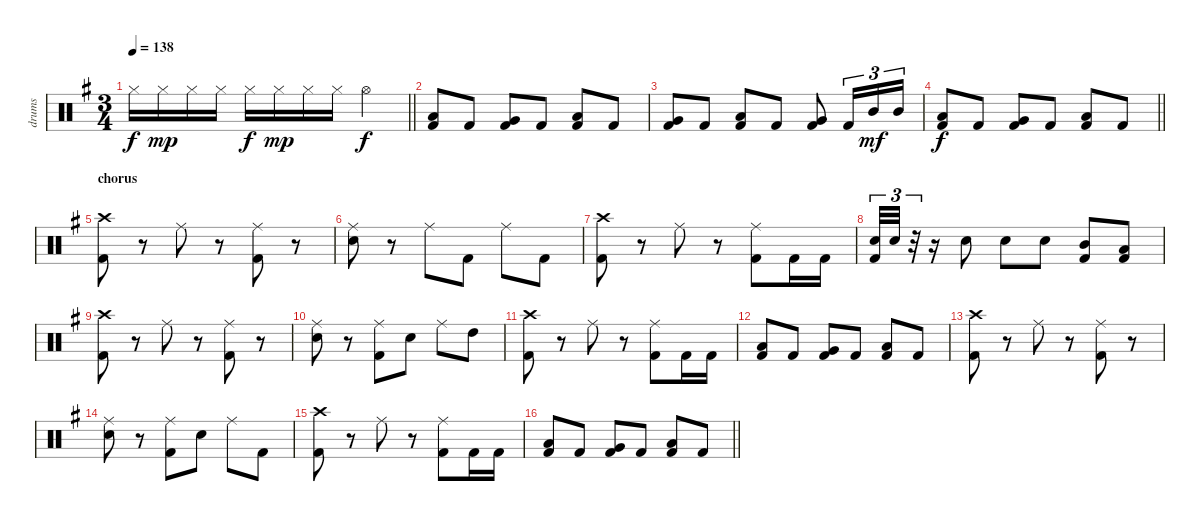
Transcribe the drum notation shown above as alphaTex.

\track ("drums" "drums") {instrument percussion}
\staff {score}
\articulation defaults
\ts (3 4)
\tempo 138
\clef neutral
\barLineRight lightlight
\ks eminor "Hi-Hat (closed)".16{dy f} "Hi-Hat (closed)".16{dy mp} "Hi-Hat (closed)".16 "Hi-Hat (closed)".16 "Hi-Hat (closed)".16{dy f} "Hi-Hat (closed)".16{dy mp} "Hi-Hat (closed)".16 "Hi-Hat (closed)".16 "Hi-Hat (open)".4{dy f}
|
\section ("" "")
("Low Tom (hit)" "Kick (hit) 2").8 "Kick (hit) 2".8 ("Very Low Tom (hit)" "Kick (hit) 2").8 "Kick (hit) 2".8 ("Low Tom (hit)" "Kick (hit) 2").8 "Kick (hit) 2".8 |
("Very Low Tom (hit)" "Kick (hit) 2").8 "Kick (hit) 2".8 ("Low Tom (hit)" "Kick (hit) 2").8 "Kick (hit) 2".8 ("Very Low Tom (hit)" "Kick (hit) 2").8 "Kick (hit) 2".16{tu (3 2)} "Mid Tom (hit)".16{tu (3 2) dy mf} "Mid Tom (hit)".16{tu (3 2)} |
\barLineRight lightlight
("Low Tom (hit)" "Kick (hit) 2").8{dy f} "Kick (hit) 2".8 ("Very Low Tom (hit)" "Kick (hit) 2").8 "Kick (hit) 2".8 ("Low Tom (hit)" "Kick (hit) 2").8 "Kick (hit) 2".8 |
\section ("" "chorus")
("Crash high (hit)" "Kick (hit) 2").8 r.8 "Ride (middle)".8 r.8 ("Ride (middle)" "Kick (hit) 2").8 r.8 |
("Ride (middle)" "Snare (hit) 2").8 r.8 "Ride (middle)".8 "Kick (hit) 2".8 "Ride (middle)".8 "Kick (hit) 2".8 |
("Crash high (hit)" "Kick (hit) 2").8 r.8 "Ride (middle)".8 r.8 ("Ride (middle)" "Kick (hit) 2").8 "Kick (hit) 2".16 "Kick (hit) 2".16 |
("Snare (hit) 2" "Kick (hit) 2").32{tu (3 2)} "Snare (hit) 2".32{tu (3 2)} r.32{tu (3 2)} r.16 "Snare (hit) 2".8 "Snare (hit) 2".8 "Snare (hit) 2".8 ("Mid Tom (hit)" "Kick (hit) 2").8 ("Low Tom (hit)" "Kick (hit) 2").8 |
("Crash high (hit)" "Kick (hit) 2").8 r.8 "Ride (middle)".8 r.8 ("Ride (middle)" "Kick (hit) 2").8 r.8 |
("Ride (middle)" "Snare (hit) 2").8 r.8 ("Ride (middle)" "Kick (hit) 2").8 "Snare (hit) 2".8 "Ride (middle)".8 "High Tom (hit)".8 |
("Crash high (hit)" "Kick (hit) 2").8 r.8 "Ride (middle)".8 r.8 ("Ride (middle)" "Kick (hit) 2").8 "Kick (hit) 2".16 "Kick (hit) 2".16 |
("Low Tom (hit)" "Kick (hit) 2").8 "Kick (hit) 2".8 ("Very Low Tom (hit)" "Kick (hit) 2").8 "Kick (hit) 2".8 ("Low Tom (hit)" "Kick (hit) 2").8 "Kick (hit) 2".8 |
("Crash high (hit)" "Kick (hit) 2").8 r.8 "Ride (middle)".8 r.8 ("Ride (middle)" "Kick (hit) 2").8 r.8 |
("Ride (middle)" "Snare (hit) 2").8 r.8 ("Ride (middle)" "Kick (hit) 2").8 "Snare (hit) 2".8 "Ride (middle)".8 "Kick (hit) 2".8 |
("Crash high (hit)" "Kick (hit) 2").8 r.8 "Ride (middle)".8 r.8 ("Ride (middle)" "Kick (hit) 2").8 "Kick (hit) 2".16 "Kick (hit) 2".16 |
\barLineRight lightlight
("Low Tom (hit)" "Kick (hit) 2").8 "Kick (hit) 2".8 ("Very Low Tom (hit)" "Kick (hit) 2").8 "Kick (hit) 2".8 ("Low Tom (hit)" "Kick (hit) 2").8 "Kick (hit) 2".8
